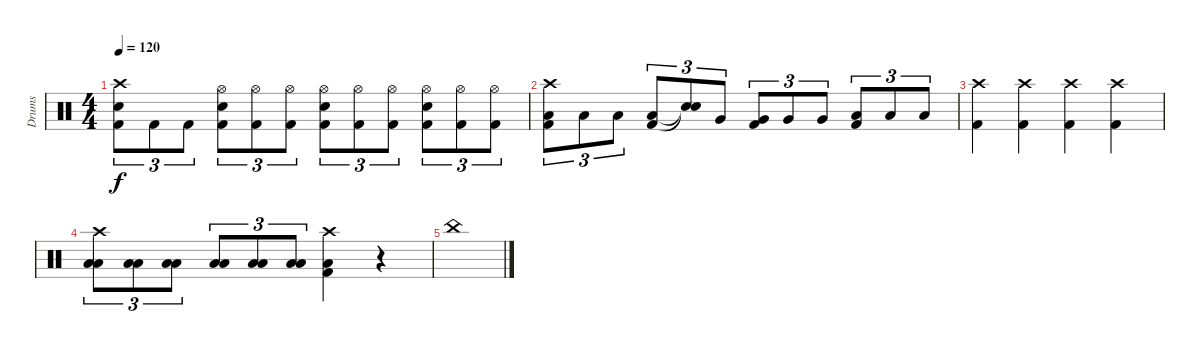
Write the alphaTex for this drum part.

\track ("Drums" "Drums") {instrument percussion}
\staff {score}
\articulation defaults
\ts (4 4)
\tempo 120
\clef neutral
\ks c
("Crash high (hit)" "Electric Snare (hit)" "Kick (hit) 2").8{tu (3 2) dy f} "Kick (hit) 2".8{tu (3 2)} "Kick (hit) 2".8{tu (3 2)} ("Hi-Hat (open)" "Electric Snare (hit)" "Kick (hit) 2").8{tu (3 2)} ("Hi-Hat (open)" "Kick (hit) 2").8{tu (3 2)} ("Hi-Hat (open)" "Kick (hit) 2").8{tu (3 2)} ("Hi-Hat (open)" "Electric Snare (hit)" "Kick (hit) 2").8{tu (3 2)} ("Hi-Hat (open)" "Kick (hit) 2").8{tu (3 2)} ("Hi-Hat (open)" "Kick (hit) 2").8{tu (3 2)} ("Hi-Hat (open)" "Electric Snare (hit)" "Kick (hit) 2").8{tu (3 2)} ("Hi-Hat (open)" "Kick (hit) 2").8{tu (3 2)} ("Hi-Hat (open)" "Kick (hit) 2").8{tu (3 2)} |
("Crash high (hit)" "Kick (hit) 2" "Low Tom (hit)").8{tu (3 2)} "Low Tom (hit)".8{tu (3 2)} "Low Tom (hit)".8{tu (3 2)} ("Kick (hit) 2" "Low Tom (hit)").8{tu (3 2)} ("Snare (hit)"{t} "Snare (hit)"{t}).8{tu (3 2)} "Very Low Tom (hit)".8{tu (3 2)} ("Kick (hit) 2" "Very Low Tom (hit)").8{tu (3 2)} "Very Low Tom (hit)".8{tu (3 2)} "Very Low Tom (hit)".8{tu (3 2)} ("Kick (hit) 2" "Low Floor Tom (hit)").8{tu (3 2)} "Low Floor Tom (hit)".8{tu (3 2)} "Low Floor Tom (hit)".8{tu (3 2)} |
("Crash high (hit)" "Kick (hit) 2").4 ("Crash high (hit)" "Kick (hit) 2").4 ("Crash high (hit)" "Kick (hit) 2").4 ("Crash high (hit)" "Kick (hit) 2").4 |
("Crash high (hit)" "Low Tom (hit)" "Low Floor Tom (hit)").8{tu (3 2)} ("Low Tom (hit)" "Low Floor Tom (hit)").8{tu (3 2)} ("Low Tom (hit)" "Low Floor Tom (hit)").8{tu (3 2)} ("Low Tom (hit)" "Low Floor Tom (hit)").8{tu (3 2)} ("Low Tom (hit)" "Low Floor Tom (hit)").8{tu (3 2)} ("Low Tom (hit)" "Low Floor Tom (hit)").8{tu (3 2)} ("Crash high (hit)" "Kick (hit) 2" "Low Floor Tom (hit)").4 r.4 |
"China (hit)".1
